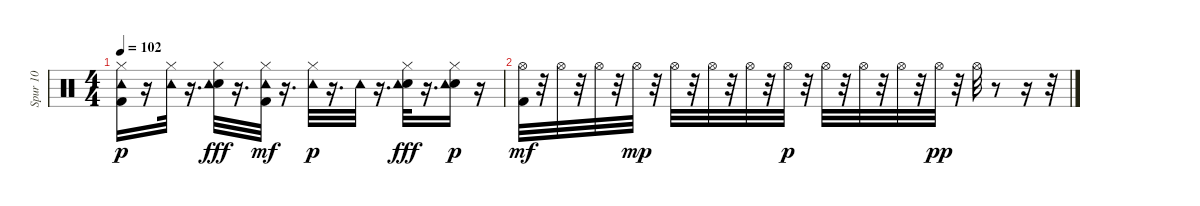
\track ("Spur 10" "Spur 10") {instrument percussion}
\staff {score}
\articulation defaults
\ts (4 4)
\tempo 102
\clef neutral
\ks c
("Kick (hit) 2" "Hi-Hat (closed)" "Tambourine (hit)").16{dy p} r.16 ("Hi-Hat (closed)" "Tambourine (hit)").32 r.16{d} ("Electric Snare (hit)" "Tambourine (hit)" "Hi-Hat (closed)").32{dy fff} r.16{d} ("Hi-Hat (closed)" "Tambourine (hit)" "Kick (hit) 2").32{dy mf} r.16{d} ("Hi-Hat (closed)" "Tambourine (hit)").32{dy p} r.16{d} "Tambourine (hit)".32 r.16{d} ("Electric Snare (hit)" "Tambourine (hit)" "Hi-Hat (closed)").32{dy fff} r.16{d} ("Electric Snare (hit)" "Hi-Hat (closed)" "Tambourine (hit)").16{dy p} r.16 |
("Kick (hit) 2" "Hi-Hat (open)").32{dy mf} r.32 "Hi-Hat (open)".32 r.32 "Hi-Hat (open)".32 r.32 "Hi-Hat (open)".32{dy mp} r.32 "Hi-Hat (open)".32 r.32 "Hi-Hat (open)".32 r.32 "Hi-Hat (open)".32 r.32 "Hi-Hat (open)".32{dy p} r.32 "Hi-Hat (open)".32 r.32 "Hi-Hat (open)".32 r.32 "Hi-Hat (open)".32 r.32 "Hi-Hat (open)".32{dy pp} r.32 "Hi-Hat (open)".32 r.8 r.16 r.32
